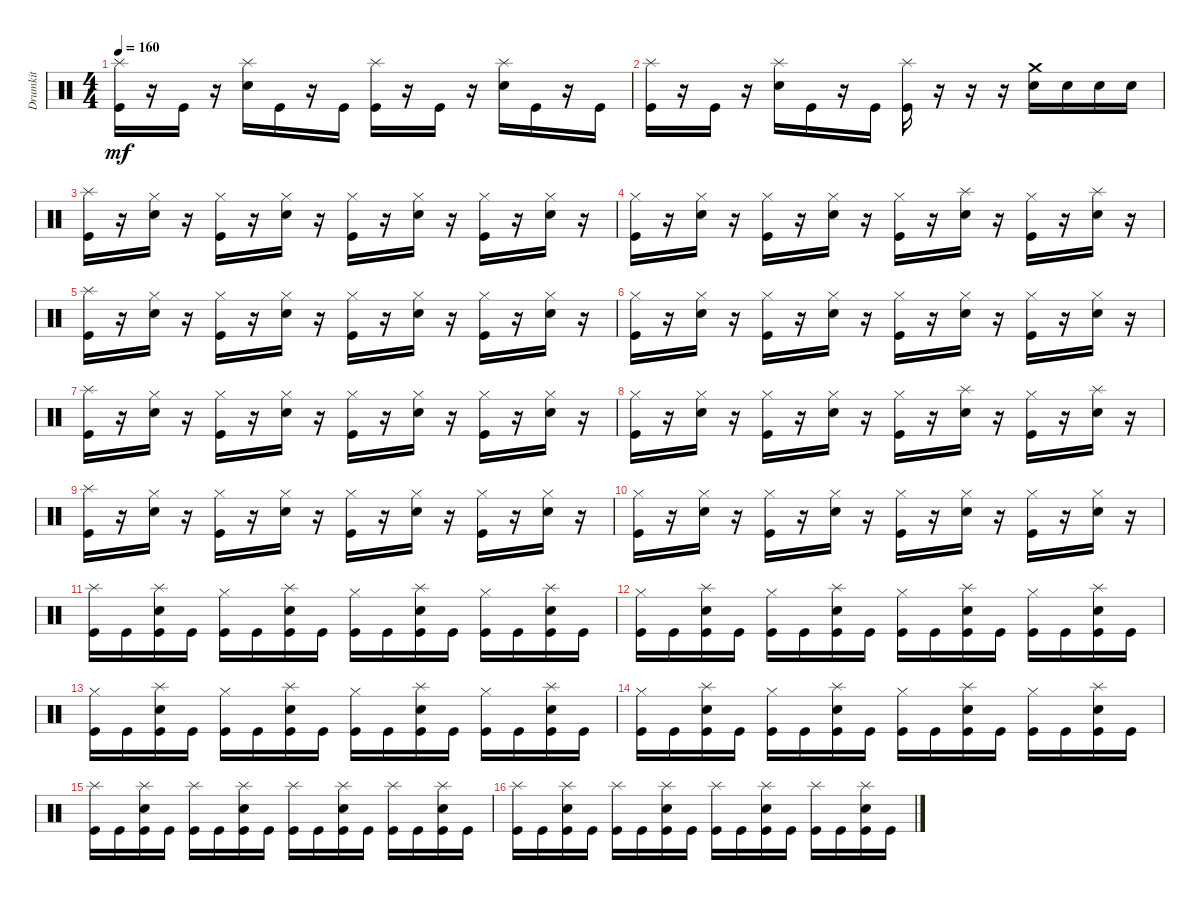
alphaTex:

\track ("Drumkit" "Drumkit") {instrument percussion}
\staff {score}
\articulation defaults
\ts (4 4)
\tempo 160
\clef neutral
\ks c
("Kick (hit)" "Splash (hit)").16{dy mf} r.16 "Kick (hit)".16 r.16 ("Snare (hit) 2" "Splash (hit)").16 "Kick (hit)".16 r.16 "Kick (hit)".16 ("Kick (hit)" "Splash (hit)").16 r.16 "Kick (hit)".16 r.16 ("Snare (hit) 2" "Splash (hit)").16 "Kick (hit)".16 r.16 "Kick (hit)".16 |
("Kick (hit)" "Splash (hit)").16 r.16 "Kick (hit)".16 r.16 ("Snare (hit) 2" "Splash (hit)").16 "Kick (hit)".16 r.16 "Kick (hit)".16 ("Kick (hit)" "Splash (hit)").16 r.16 r.16 r.16 ("Snare (hit) 2" "Crash medium (hit)").16 "Snare (hit) 2".16 "Snare (hit) 2".16 "Snare (hit) 2".16 |
("Splash (hit)" "Kick (hit)").16 r.16 ("Snare (hit) 2" "Hi-Hat (closed)").16 r.16 ("Hi-Hat (closed)" "Kick (hit)").16 r.16 ("Hi-Hat (closed)" "Snare (hit) 2").16 r.16 ("Hi-Hat (closed)" "Kick (hit)").16 r.16 ("Hi-Hat (closed)" "Snare (hit) 2").16 r.16 ("Hi-Hat (closed)" "Kick (hit)").16 r.16 ("Hi-Hat (closed)" "Snare (hit) 2").16 r.16 |
("Kick (hit)" "Hi-Hat (closed)").16 r.16 ("Snare (hit) 2" "Hi-Hat (closed)").16 r.16 ("Hi-Hat (closed)" "Kick (hit)").16 r.16 ("Hi-Hat (closed)" "Snare (hit) 2").16 r.16 ("Hi-Hat (closed)" "Kick (hit)").16 r.16 ("Snare (hit) 2" "Splash (hit)").16 r.16 ("Hi-Hat (closed)" "Kick (hit)").16 r.16 ("Snare (hit) 2" "Splash (hit)").16 r.16 |
("Splash (hit)" "Kick (hit)").16 r.16 ("Snare (hit) 2" "Hi-Hat (closed)").16 r.16 ("Hi-Hat (closed)" "Kick (hit)").16 r.16 ("Hi-Hat (closed)" "Snare (hit) 2").16 r.16 ("Hi-Hat (closed)" "Kick (hit)").16 r.16 ("Hi-Hat (closed)" "Snare (hit) 2").16 r.16 ("Hi-Hat (closed)" "Kick (hit)").16 r.16 ("Hi-Hat (closed)" "Snare (hit) 2").16 r.16 |
("Kick (hit)" "Hi-Hat (closed)").16 r.16 ("Snare (hit) 2" "Hi-Hat (closed)").16 r.16 ("Hi-Hat (closed)" "Kick (hit)").16 r.16 ("Hi-Hat (closed)" "Snare (hit) 2").16 r.16 ("Hi-Hat (closed)" "Kick (hit)").16 r.16 ("Snare (hit) 2" "Hi-Hat (closed)").16 r.16 ("Hi-Hat (closed)" "Kick (hit)").16 r.16 ("Snare (hit) 2" "Hi-Hat (closed)").16 r.16 |
("Splash (hit)" "Kick (hit)").16 r.16 ("Snare (hit) 2" "Hi-Hat (closed)").16 r.16 ("Hi-Hat (closed)" "Kick (hit)").16 r.16 ("Hi-Hat (closed)" "Snare (hit) 2").16 r.16 ("Hi-Hat (closed)" "Kick (hit)").16 r.16 ("Hi-Hat (closed)" "Snare (hit) 2").16 r.16 ("Hi-Hat (closed)" "Kick (hit)").16 r.16 ("Hi-Hat (closed)" "Snare (hit) 2").16 r.16 |
("Kick (hit)" "Hi-Hat (closed)").16 r.16 ("Snare (hit) 2" "Hi-Hat (closed)").16 r.16 ("Hi-Hat (closed)" "Kick (hit)").16 r.16 ("Hi-Hat (closed)" "Snare (hit) 2").16 r.16 ("Hi-Hat (closed)" "Kick (hit)").16 r.16 ("Snare (hit) 2" "Splash (hit)").16 r.16 ("Hi-Hat (closed)" "Kick (hit)").16 r.16 ("Snare (hit) 2" "Splash (hit)").16 r.16 |
("Splash (hit)" "Kick (hit)").16 r.16 ("Snare (hit) 2" "Hi-Hat (closed)").16 r.16 ("Hi-Hat (closed)" "Kick (hit)").16 r.16 ("Hi-Hat (closed)" "Snare (hit) 2").16 r.16 ("Hi-Hat (closed)" "Kick (hit)").16 r.16 ("Hi-Hat (closed)" "Snare (hit) 2").16 r.16 ("Hi-Hat (closed)" "Kick (hit)").16 r.16 ("Hi-Hat (closed)" "Snare (hit) 2").16 r.16 |
("Kick (hit)" "Hi-Hat (closed)").16 r.16 ("Snare (hit) 2" "Hi-Hat (closed)").16 r.16 ("Hi-Hat (closed)" "Kick (hit)").16 r.16 ("Hi-Hat (closed)" "Snare (hit) 2").16 r.16 ("Hi-Hat (closed)" "Kick (hit)").16 r.16 ("Snare (hit) 2" "Hi-Hat (closed)").16 r.16 ("Hi-Hat (closed)" "Kick (hit)").16 r.16 ("Snare (hit) 2" "Hi-Hat (closed)").16 r.16 |
("Kick (hit)" "Splash (hit)").16 "Kick (hit)".16 ("Kick (hit)" "Snare (hit) 2" "Splash (hit)").16 "Kick (hit)".16 ("Kick (hit)" "Hi-Hat (closed)").16 "Kick (hit)".16 ("Kick (hit)" "Snare (hit) 2" "Splash (hit)").16 "Kick (hit)".16 ("Kick (hit)" "Hi-Hat (closed)").16 "Kick (hit)".16 ("Kick (hit)" "Snare (hit) 2" "Splash (hit)").16 "Kick (hit)".16 ("Kick (hit)" "Hi-Hat (closed)").16 "Kick (hit)".16 ("Kick (hit)" "Snare (hit) 2" "Splash (hit)").16 "Kick (hit)".16 |
("Kick (hit)" "Hi-Hat (closed)").16 "Kick (hit)".16 ("Kick (hit)" "Snare (hit) 2" "Splash (hit)").16 "Kick (hit)".16 ("Kick (hit)" "Hi-Hat (closed)").16 "Kick (hit)".16 ("Kick (hit)" "Snare (hit) 2" "Splash (hit)").16 "Kick (hit)".16 ("Kick (hit)" "Hi-Hat (closed)").16 "Kick (hit)".16 ("Kick (hit)" "Snare (hit) 2" "Splash (hit)").16 "Kick (hit)".16 ("Kick (hit)" "Hi-Hat (closed)").16 "Kick (hit)".16 ("Kick (hit)" "Snare (hit) 2" "Splash (hit)").16 "Kick (hit)".16 |
("Kick (hit)" "Hi-Hat (closed)").16 "Kick (hit)".16 ("Kick (hit)" "Snare (hit) 2" "Splash (hit)").16 "Kick (hit)".16 ("Kick (hit)" "Hi-Hat (closed)").16 "Kick (hit)".16 ("Kick (hit)" "Snare (hit) 2" "Splash (hit)").16 "Kick (hit)".16 ("Kick (hit)" "Hi-Hat (closed)").16 "Kick (hit)".16 ("Kick (hit)" "Snare (hit) 2" "Splash (hit)").16 "Kick (hit)".16 ("Kick (hit)" "Hi-Hat (closed)").16 "Kick (hit)".16 ("Kick (hit)" "Snare (hit) 2" "Splash (hit)").16 "Kick (hit)".16 |
("Kick (hit)" "Hi-Hat (closed)").16 "Kick (hit)".16 ("Kick (hit)" "Snare (hit) 2" "Splash (hit)").16 "Kick (hit)".16 ("Kick (hit)" "Hi-Hat (closed)").16 "Kick (hit)".16 ("Kick (hit)" "Snare (hit) 2" "Splash (hit)").16 "Kick (hit)".16 ("Kick (hit)" "Hi-Hat (closed)").16 "Kick (hit)".16 ("Kick (hit)" "Snare (hit) 2" "Splash (hit)").16 "Kick (hit)".16 ("Kick (hit)" "Hi-Hat (closed)").16 "Kick (hit)".16 ("Kick (hit)" "Snare (hit) 2" "Splash (hit)").16 "Kick (hit)".16 |
("Kick (hit)" "Splash (hit)").16 "Kick (hit)".16 ("Kick (hit)" "Snare (hit) 2" "Splash (hit)").16 "Kick (hit)".16 ("Kick (hit)" "Splash (hit)").16 "Kick (hit)".16 ("Kick (hit)" "Snare (hit) 2" "Splash (hit)").16 "Kick (hit)".16 ("Kick (hit)" "Splash (hit)").16 "Kick (hit)".16 ("Kick (hit)" "Snare (hit) 2" "Splash (hit)").16 "Kick (hit)".16 ("Kick (hit)" "Splash (hit)").16 "Kick (hit)".16 ("Kick (hit)" "Snare (hit) 2" "Splash (hit)").16 "Kick (hit)".16 |
("Kick (hit)" "Splash (hit)").16 "Kick (hit)".16 ("Kick (hit)" "Snare (hit) 2" "Splash (hit)").16 "Kick (hit)".16 ("Kick (hit)" "Splash (hit)").16 "Kick (hit)".16 ("Kick (hit)" "Snare (hit) 2" "Splash (hit)").16 "Kick (hit)".16 ("Kick (hit)" "Splash (hit)").16 "Kick (hit)".16 ("Kick (hit)" "Snare (hit) 2" "Splash (hit)").16 "Kick (hit)".16 ("Kick (hit)" "Splash (hit)").16 "Kick (hit)".16 ("Kick (hit)" "Snare (hit) 2" "Splash (hit)").16 "Kick (hit)".16
